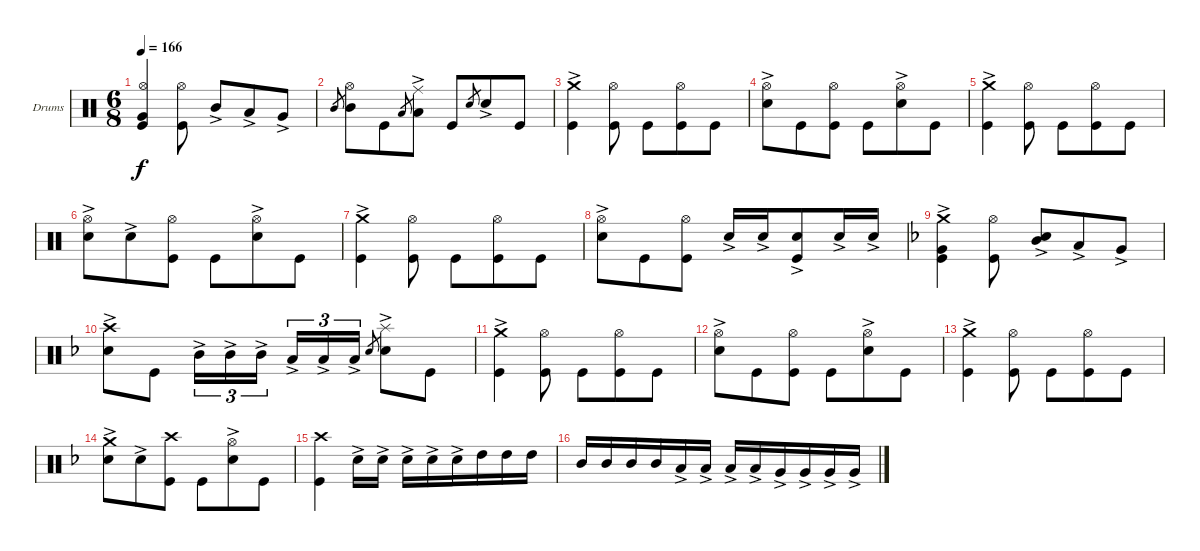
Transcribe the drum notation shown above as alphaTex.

\bracketExtendMode groupsimilarinstruments
\firstSystemTrackNameOrientation horizontal
\otherSystemsTrackNameOrientation horizontal
\track ("Drumkit" "Drums") {instrument percussion}
\staff {score}
\articulation defaults
\ts (6 8)
\tempo 166
\clef neutral
\ks c
("Kick (hit)" "Hi-Hat (open)" "Very Low Tom (hit)").4{dy f} ("Kick (hit)" "Hi-Hat (open)").8 "Mid Tom (hit)"{ac}.8 "Low Tom (hit)"{ac}.8 "Very Low Tom (hit)"{ac}.8 |
"Mid Tom (hit)".8{gr} ("Hi-Hat (open)" "Mid Tom (hit)").8 "Kick (hit)".8 "Low Tom (hit)".8{gr} ("Ride (middle)"{ac} "Low Tom (hit)").8 "Kick (hit)".8 "Snare (hit) 2".8{gr} "Snare (hit) 2"{ac}.8 "Kick (hit)".8 |
("Crash medium (hit)"{ac} "Kick (hit)").4 ("Kick (hit)" "Hi-Hat (open)").8 "Kick (hit)".8 ("Kick (hit)" "Hi-Hat (open)").8 "Kick (hit)".8 |
("Snare (hit) 2"{ac} "Hi-Hat (open)").8 "Kick (hit)".8 ("Kick (hit)" "Hi-Hat (open)").8 "Kick (hit)".8 ("Snare (hit) 2"{ac} "Hi-Hat (open)").8 "Kick (hit)".8 |
("Crash medium (hit)"{ac} "Kick (hit)").4 ("Kick (hit)" "Hi-Hat (open)").8 "Kick (hit)".8 ("Kick (hit)" "Hi-Hat (open)").8 "Kick (hit)".8 |
("Snare (hit) 2"{ac} "Hi-Hat (open)").8 "Snare (hit) 2"{ac}.8 ("Kick (hit)" "Hi-Hat (open)").8 "Kick (hit)".8 ("Snare (hit) 2"{ac} "Hi-Hat (open)").8 "Kick (hit)".8 |
("Crash medium (hit)"{ac} "Kick (hit)").4 ("Kick (hit)" "Hi-Hat (open)").8 "Kick (hit)".8 ("Kick (hit)" "Hi-Hat (open)").8 "Kick (hit)".8 |
("Snare (hit) 2"{ac} "Hi-Hat (open)").8 "Kick (hit)".8 ("Kick (hit)" "Hi-Hat (open)").8 "Snare (hit) 2"{ac}.16 "Snare (hit) 2"{ac}.16 ("Snare (hit) 2"{ac} "Kick (hit)").8 "Snare (hit) 2"{ac}.16 "Snare (hit) 2"{ac}.16 |
\ks dminor
("Kick (hit)" "Very Low Tom (hit)"{ac} "Crash medium (hit)"{ac}).4 ("Kick (hit)" "Hi-Hat (open)").8 ("Mid Tom (hit)"{ac} "Snare (hit) 2").8 "Low Tom (hit)"{ac}.8 "Very Low Tom (hit)"{ac}.8 |
("Crash high (hit)"{ac} "Snare (hit) 2"{ac}).8 "Kick (hit)".8 "Mid Tom (hit)"{ac}.16{tu (3 2)} "Mid Tom (hit)"{ac}.16{tu (3 2)} "Mid Tom (hit)"{ac}.16{tu (3 2)} "Low Tom (hit)"{ac}.16{tu (3 2)} "Low Tom (hit)"{ac}.16{tu (3 2)} "Low Tom (hit)"{ac}.16{tu (3 2)} "Snare (hit) 2".8{gr} ("Splash (hit)" "Snare (hit) 2"{ac}).8 "Kick (hit)".8 |
("Crash medium (hit)"{ac} "Kick (hit)").4 ("Kick (hit)" "Hi-Hat (open)").8 "Kick (hit)".8 ("Kick (hit)" "Hi-Hat (open)").8 "Kick (hit)".8 |
("Snare (hit) 2"{ac} "Hi-Hat (open)").8 "Kick (hit)".8 ("Kick (hit)" "Hi-Hat (open)").8 "Kick (hit)".8 ("Snare (hit) 2"{ac} "Hi-Hat (open)").8 "Kick (hit)".8 |
("Crash medium (hit)"{ac} "Kick (hit)").4 ("Kick (hit)" "Hi-Hat (open)").8 "Kick (hit)".8 ("Kick (hit)" "Hi-Hat (open)").8 "Kick (hit)".8 |
("Crash medium (hit)"{ac} "Snare (hit) 2"{ac}).8 "Snare (hit) 2"{ac}.8 ("Crash high (hit)" "Kick (hit)").8 "Kick (hit)".8 ("Snare (hit) 2"{ac} "Hi-Hat (open)").8 "Kick (hit)".8 |
("Crash high (hit)" "Kick (hit)").4 "Snare (hit) 2"{ac}.16 "Snare (hit) 2"{ac}.16 "Snare (hit) 2"{ac}.16 "Snare (hit) 2"{ac}.16 "Snare (hit) 2"{ac}.16 "High Tom (hit)".16 "High Tom (hit)".16 "High Tom (hit)".16 |
"Mid Tom (hit)".16 "Mid Tom (hit)".16 "Mid Tom (hit)".16 "Mid Tom (hit)".16 "Low Tom (hit)"{ac}.16 "Low Tom (hit)"{ac}.16 "Low Tom (hit)"{ac}.16 "Low Tom (hit)"{ac}.16 "Very Low Tom (hit)"{ac}.16 "Very Low Tom (hit)"{ac}.16 "Very Low Tom (hit)"{ac}.16 "Very Low Tom (hit)"{ac}.16
